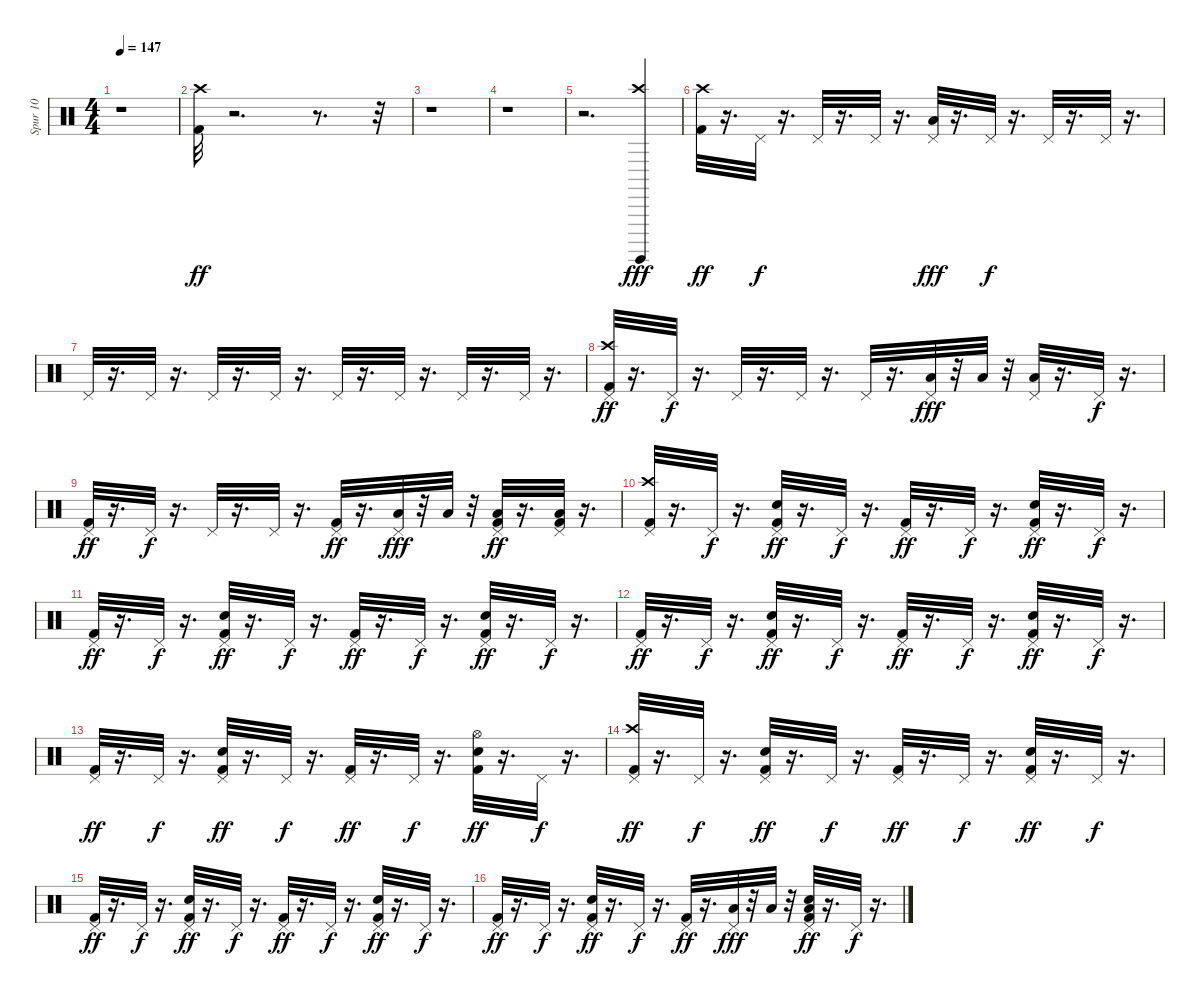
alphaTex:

\track ("Spur 10" "Spur 10") {instrument percussion}
\staff {score}
\articulation defaults
\ts (4 4)
\tempo 147
\clef neutral
\ks c
r.1{dy ff} |
("Kick (hit) 2" "Crash high (hit)").32 r.2{d} r.8{d} r.32 |
r.1 |
r.1 |
r.2{d} ("Surdo (hit)" "Crash high (hit)").4{dy fff} |
("Kick (hit) 2" "Crash high (hit)").32{dy ff} r.16{d} "Pedal Hi-Hat (hit)".32{dy f} r.16{d} "Pedal Hi-Hat (hit)".32 r.16{d} "Pedal Hi-Hat (hit)".32 r.16{d} ("Low Floor Tom (hit)" "Pedal Hi-Hat (hit)").32{dy fff} r.16{d} "Pedal Hi-Hat (hit)".32{dy f} r.16{d} "Pedal Hi-Hat (hit)".32 r.16{d} "Pedal Hi-Hat (hit)".32 r.16{d} |
"Pedal Hi-Hat (hit)".32 r.16{d} "Pedal Hi-Hat (hit)".32 r.16{d} "Pedal Hi-Hat (hit)".32 r.16{d} "Pedal Hi-Hat (hit)".32 r.16{d} "Pedal Hi-Hat (hit)".32 r.16{d} "Pedal Hi-Hat (hit)".32 r.16{d} "Pedal Hi-Hat (hit)".32 r.16{d} "Pedal Hi-Hat (hit)".32 r.16{d} |
("Crash high (hit)" "Kick (hit) 2" "Pedal Hi-Hat (hit)").32{dy ff} r.16{d} "Pedal Hi-Hat (hit)".32{dy f} r.16{d} "Pedal Hi-Hat (hit)".32 r.16{d} "Pedal Hi-Hat (hit)".32 r.16{d} "Pedal Hi-Hat (hit)".32 r.16{d} ("Low Tom (hit)" "Pedal Hi-Hat (hit)").32{dy fff} r.32 "Low Tom (hit)".32 r.32 ("Low Tom (hit)" "Pedal Hi-Hat (hit)").32 r.16{d} "Pedal Hi-Hat (hit)".32{dy f} r.16{d} |
("Pedal Hi-Hat (hit)" "Kick (hit) 2").32{dy ff} r.16{d} "Pedal Hi-Hat (hit)".32{dy f} r.16{d} "Pedal Hi-Hat (hit)".32 r.16{d} "Pedal Hi-Hat (hit)".32 r.16{d} ("Pedal Hi-Hat (hit)" "Kick (hit) 2").32{dy ff} r.16{d} ("Low Tom (hit)" "Pedal Hi-Hat (hit)").32{dy fff} r.32 "Low Tom (hit)".32 r.32 ("Low Tom (hit)" "Pedal Hi-Hat (hit)" "Kick (hit) 2").32{dy ff} r.16{d} ("Low Floor Tom (hit)" "Pedal Hi-Hat (hit)" "Kick (hit) 2").32 r.16{d} |
("Pedal Hi-Hat (hit)" "Kick (hit) 2" "Crash high (hit)").32 r.16{d} "Pedal Hi-Hat (hit)".32{dy f} r.16{d} ("Snare (hit) 2" "Kick (hit) 2" "Pedal Hi-Hat (hit)").32{dy ff} r.16{d} "Pedal Hi-Hat (hit)".32{dy f} r.16{d} ("Kick (hit) 2" "Pedal Hi-Hat (hit)").32{dy ff} r.16{d} "Pedal Hi-Hat (hit)".32{dy f} r.16{d} ("Snare (hit) 2" "Pedal Hi-Hat (hit)" "Kick (hit) 2").32{dy ff} r.16{d} "Pedal Hi-Hat (hit)".32{dy f} r.16{d} |
("Pedal Hi-Hat (hit)" "Kick (hit) 2").32{dy ff} r.16{d} "Pedal Hi-Hat (hit)".32{dy f} r.16{d} ("Snare (hit) 2" "Kick (hit) 2" "Pedal Hi-Hat (hit)").32{dy ff} r.16{d} "Pedal Hi-Hat (hit)".32{dy f} r.16{d} ("Kick (hit) 2" "Pedal Hi-Hat (hit)").32{dy ff} r.16{d} "Pedal Hi-Hat (hit)".32{dy f} r.16{d} ("Snare (hit) 2" "Pedal Hi-Hat (hit)" "Kick (hit) 2").32{dy ff} r.16{d} "Pedal Hi-Hat (hit)".32{dy f} r.16{d} |
("Pedal Hi-Hat (hit)" "Kick (hit) 2").32{dy ff} r.16{d} "Pedal Hi-Hat (hit)".32{dy f} r.16{d} ("Snare (hit) 2" "Kick (hit) 2" "Pedal Hi-Hat (hit)").32{dy ff} r.16{d} "Pedal Hi-Hat (hit)".32{dy f} r.16{d} ("Kick (hit) 2" "Pedal Hi-Hat (hit)").32{dy ff} r.16{d} "Pedal Hi-Hat (hit)".32{dy f} r.16{d} ("Snare (hit) 2" "Pedal Hi-Hat (hit)" "Kick (hit) 2").32{dy ff} r.16{d} "Pedal Hi-Hat (hit)".32{dy f} r.16{d} |
("Pedal Hi-Hat (hit)" "Kick (hit) 2").32{dy ff} r.16{d} "Pedal Hi-Hat (hit)".32{dy f} r.16{d} ("Snare (hit) 2" "Kick (hit) 2" "Pedal Hi-Hat (hit)").32{dy ff} r.16{d} "Pedal Hi-Hat (hit)".32{dy f} r.16{d} ("Kick (hit) 2" "Pedal Hi-Hat (hit)").32{dy ff} r.16{d} "Pedal Hi-Hat (hit)".32{dy f} r.16{d} ("Snare (hit) 2" "Hi-Hat (open)" "Kick (hit) 2").32{dy ff} r.16{d} "Pedal Hi-Hat (hit)".32{dy f} r.16{d} |
("Pedal Hi-Hat (hit)" "Kick (hit) 2" "Crash high (hit)").32{dy ff} r.16{d} "Pedal Hi-Hat (hit)".32{dy f} r.16{d} ("Snare (hit) 2" "Kick (hit) 2" "Pedal Hi-Hat (hit)").32{dy ff} r.16{d} "Pedal Hi-Hat (hit)".32{dy f} r.16{d} ("Kick (hit) 2" "Pedal Hi-Hat (hit)").32{dy ff} r.16{d} "Pedal Hi-Hat (hit)".32{dy f} r.16{d} ("Snare (hit) 2" "Pedal Hi-Hat (hit)" "Kick (hit) 2").32{dy ff} r.16{d} "Pedal Hi-Hat (hit)".32{dy f} r.16{d} |
("Pedal Hi-Hat (hit)" "Kick (hit) 2").32{dy ff} r.16{d} "Pedal Hi-Hat (hit)".32{dy f} r.16{d} ("Snare (hit) 2" "Kick (hit) 2" "Pedal Hi-Hat (hit)").32{dy ff} r.16{d} "Pedal Hi-Hat (hit)".32{dy f} r.16{d} ("Kick (hit) 2" "Pedal Hi-Hat (hit)").32{dy ff} r.16{d} "Pedal Hi-Hat (hit)".32{dy f} r.16{d} ("Snare (hit) 2" "Pedal Hi-Hat (hit)" "Kick (hit) 2").32{dy ff} r.16{d} "Pedal Hi-Hat (hit)".32{dy f} r.16{d} |
("Pedal Hi-Hat (hit)" "Kick (hit) 2").32{dy ff} r.16{d} "Pedal Hi-Hat (hit)".32{dy f} r.16{d} ("Snare (hit) 2" "Kick (hit) 2" "Pedal Hi-Hat (hit)").32{dy ff} r.16{d} "Pedal Hi-Hat (hit)".32{dy f} r.16{d} ("Kick (hit) 2" "Pedal Hi-Hat (hit)").32{dy ff} r.16{d} ("Low Tom (hit)" "Pedal Hi-Hat (hit)").32{dy fff} r.32 "Low Tom (hit)".32 r.32 ("Low Tom (hit)" "Snare (hit) 2" "Pedal Hi-Hat (hit)" "Kick (hit) 2").32{dy ff} r.16{d} "Pedal Hi-Hat (hit)".32{dy f} r.16{d}
